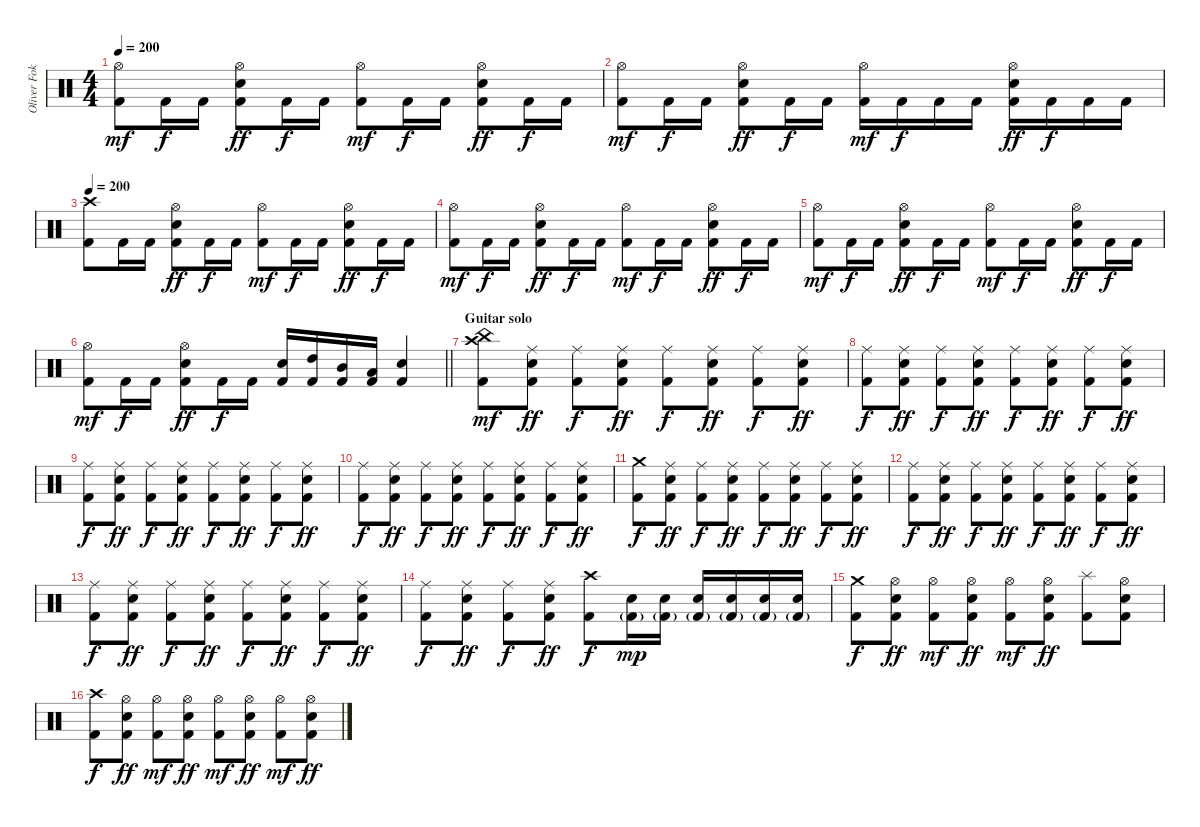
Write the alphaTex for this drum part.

\track ("Oliver Fokin" "Oliver Fok") {instrument percussion}
\staff {score}
\articulation defaults
\ts (4 4)
\tempo 200
\clef neutral
\ks c
("Hi-Hat (open)" "Kick (hit) 2").8{dy mf} "Kick (hit) 2".16{dy f} "Kick (hit) 2".16 ("Hi-Hat (open)" "Electric Snare (hit)" "Kick (hit) 2").8{dy ff} "Kick (hit) 2".16{dy f} "Kick (hit) 2".16 ("Hi-Hat (open)" "Kick (hit) 2").8{dy mf} "Kick (hit) 2".16{dy f} "Kick (hit) 2".16 ("Hi-Hat (open)" "Electric Snare (hit)" "Kick (hit) 2").8{dy ff} "Kick (hit) 2".16{dy f} "Kick (hit) 2".16 |
("Hi-Hat (open)" "Kick (hit) 2").8{dy mf} "Kick (hit) 2".16{dy f} "Kick (hit) 2".16 ("Hi-Hat (open)" "Electric Snare (hit)" "Kick (hit) 2").8{dy ff} "Kick (hit) 2".16{dy f} "Kick (hit) 2".16 ("Hi-Hat (open)" "Kick (hit) 2").16{dy mf} "Kick (hit) 2".16{dy f} "Kick (hit) 2".16 "Kick (hit) 2".16 ("Hi-Hat (open)" "Electric Snare (hit)" "Kick (hit) 2").16{dy ff} "Kick (hit) 2".16{dy f} "Kick (hit) 2".16 "Kick (hit) 2".16 |
\tempo 200
("Crash high (hit)" "Kick (hit) 2").8 "Kick (hit) 2".16 "Kick (hit) 2".16 ("Hi-Hat (open)" "Electric Snare (hit)" "Kick (hit) 2").8{dy ff} "Kick (hit) 2".16{dy f} "Kick (hit) 2".16 ("Hi-Hat (open)" "Kick (hit) 2").8{dy mf} "Kick (hit) 2".16{dy f} "Kick (hit) 2".16 ("Hi-Hat (open)" "Electric Snare (hit)" "Kick (hit) 2").8{dy ff} "Kick (hit) 2".16{dy f} "Kick (hit) 2".16 |
("Hi-Hat (open)" "Kick (hit) 2").8{dy mf} "Kick (hit) 2".16{dy f} "Kick (hit) 2".16 ("Hi-Hat (open)" "Electric Snare (hit)" "Kick (hit) 2").8{dy ff} "Kick (hit) 2".16{dy f} "Kick (hit) 2".16 ("Hi-Hat (open)" "Kick (hit) 2").8{dy mf} "Kick (hit) 2".16{dy f} "Kick (hit) 2".16 ("Hi-Hat (open)" "Electric Snare (hit)" "Kick (hit) 2").8{dy ff} "Kick (hit) 2".16{dy f} "Kick (hit) 2".16 |
("Hi-Hat (open)" "Kick (hit) 2").8{dy mf} "Kick (hit) 2".16{dy f} "Kick (hit) 2".16 ("Hi-Hat (open)" "Electric Snare (hit)" "Kick (hit) 2").8{dy ff} "Kick (hit) 2".16{dy f} "Kick (hit) 2".16 ("Hi-Hat (open)" "Kick (hit) 2").8{dy mf} "Kick (hit) 2".16{dy f} "Kick (hit) 2".16 ("Hi-Hat (open)" "Electric Snare (hit)" "Kick (hit) 2").8{dy ff} "Kick (hit) 2".16{dy f} "Kick (hit) 2".16 |
\barLineRight lightlight
("Hi-Hat (open)" "Kick (hit) 2").8{dy mf} "Kick (hit) 2".16{dy f} "Kick (hit) 2".16 ("Hi-Hat (open)" "Electric Snare (hit)" "Kick (hit) 2").8{dy ff} "Kick (hit) 2".16{dy f} "Kick (hit) 2".16 ("Electric Snare (hit)" "Kick (hit) 2").16 ("High Tom (hit)" "Kick (hit) 2").16 ("Mid Tom (hit)" "Kick (hit) 2").16 ("Low Tom (hit)" "Kick (hit) 2").16 ("Electric Snare (hit)" "Kick (hit) 2").4 |
\section ("" "Guitar solo")
("Crash high (hit)" "China (hit)" "Kick (hit) 2").8{dy mf} ("Ride (middle)" "Electric Snare (hit)" "Kick (hit) 2").8{dy ff} ("Ride (middle)" "Kick (hit) 2").8{dy f} ("Ride (middle)" "Electric Snare (hit)" "Kick (hit) 2").8{dy ff} ("Ride (middle)" "Kick (hit) 2").8{dy f} ("Ride (middle)" "Electric Snare (hit)" "Kick (hit) 2").8{dy ff} ("Ride (middle)" "Kick (hit) 2").8{dy f} ("Ride (middle)" "Electric Snare (hit)" "Kick (hit) 2").8{dy ff} |
("Ride (middle)" "Kick (hit) 2").8{dy f} ("Ride (middle)" "Electric Snare (hit)" "Kick (hit) 2").8{dy ff} ("Ride (middle)" "Kick (hit) 2").8{dy f} ("Ride (middle)" "Electric Snare (hit)" "Kick (hit) 2").8{dy ff} ("Ride (middle)" "Kick (hit) 2").8{dy f} ("Ride (middle)" "Electric Snare (hit)" "Kick (hit) 2").8{dy ff} ("Ride (middle)" "Kick (hit) 2").8{dy f} ("Ride (middle)" "Electric Snare (hit)" "Kick (hit) 2").8{dy ff} |
("Ride (middle)" "Kick (hit) 2").8{dy f} ("Ride (middle)" "Electric Snare (hit)" "Kick (hit) 2").8{dy ff} ("Ride (middle)" "Kick (hit) 2").8{dy f} ("Ride (middle)" "Electric Snare (hit)" "Kick (hit) 2").8{dy ff} ("Ride (middle)" "Kick (hit) 2").8{dy f} ("Ride (middle)" "Electric Snare (hit)" "Kick (hit) 2").8{dy ff} ("Ride (middle)" "Kick (hit) 2").8{dy f} ("Ride (middle)" "Electric Snare (hit)" "Kick (hit) 2").8{dy ff} |
("Ride (middle)" "Kick (hit) 2").8{dy f} ("Ride (middle)" "Electric Snare (hit)" "Kick (hit) 2").8{dy ff} ("Ride (middle)" "Kick (hit) 2").8{dy f} ("Ride (middle)" "Electric Snare (hit)" "Kick (hit) 2").8{dy ff} ("Ride (middle)" "Kick (hit) 2").8{dy f} ("Ride (middle)" "Electric Snare (hit)" "Kick (hit) 2").8{dy ff} ("Ride (middle)" "Kick (hit) 2").8{dy f} ("Ride (middle)" "Electric Snare (hit)" "Kick (hit) 2").8{dy ff} |
("Crash medium (hit)" "Kick (hit) 2").8{dy f} ("Ride (middle)" "Electric Snare (hit)" "Kick (hit) 2").8{dy ff} ("Ride (middle)" "Kick (hit) 2").8{dy f} ("Ride (middle)" "Electric Snare (hit)" "Kick (hit) 2").8{dy ff} ("Ride (middle)" "Kick (hit) 2").8{dy f} ("Ride (middle)" "Electric Snare (hit)" "Kick (hit) 2").8{dy ff} ("Ride (middle)" "Kick (hit) 2").8{dy f} ("Ride (middle)" "Electric Snare (hit)" "Kick (hit) 2").8{dy ff} |
("Ride (middle)" "Kick (hit) 2").8{dy f} ("Ride (middle)" "Electric Snare (hit)" "Kick (hit) 2").8{dy ff} ("Ride (middle)" "Kick (hit) 2").8{dy f} ("Ride (middle)" "Electric Snare (hit)" "Kick (hit) 2").8{dy ff} ("Ride (middle)" "Kick (hit) 2").8{dy f} ("Ride (middle)" "Electric Snare (hit)" "Kick (hit) 2").8{dy ff} ("Ride (middle)" "Kick (hit) 2").8{dy f} ("Ride (middle)" "Electric Snare (hit)" "Kick (hit) 2").8{dy ff} |
("Ride (middle)" "Kick (hit) 2").8{dy f} ("Ride (middle)" "Electric Snare (hit)" "Kick (hit) 2").8{dy ff} ("Ride (middle)" "Kick (hit) 2").8{dy f} ("Ride (middle)" "Electric Snare (hit)" "Kick (hit) 2").8{dy ff} ("Ride (middle)" "Kick (hit) 2").8{dy f} ("Ride (middle)" "Electric Snare (hit)" "Kick (hit) 2").8{dy ff} ("Ride (middle)" "Kick (hit) 2").8{dy f} ("Ride (middle)" "Electric Snare (hit)" "Kick (hit) 2").8{dy ff} |
("Ride (middle)" "Kick (hit) 2").8{dy f} ("Ride (middle)" "Electric Snare (hit)" "Kick (hit) 2").8{dy ff} ("Ride (middle)" "Kick (hit) 2").8{dy f} ("Ride (middle)" "Electric Snare (hit)" "Kick (hit) 2").8{dy ff} ("Crash high (hit)" "Kick (hit) 2").8{dy f} ("Electric Snare (hit)" "Kick (hit) 2"{g}).16{dy mp} ("Electric Snare (hit)" "Kick (hit) 2"{g}).16 ("Electric Snare (hit)" "Kick (hit) 2"{g}).16 ("Electric Snare (hit)" "Kick (hit) 2"{g}).16 ("Electric Snare (hit)" "Kick (hit) 2"{g}).16 ("Electric Snare (hit)" "Kick (hit) 2"{g}).16 |
("Crash medium (hit)" "Kick (hit) 2").8{dy f} ("Hi-Hat (open)" "Electric Snare (hit)" "Kick (hit) 2").8{dy ff} ("Hi-Hat (open)" "Kick (hit) 2").8{dy mf} ("Hi-Hat (open)" "Electric Snare (hit)" "Kick (hit) 2").8{dy ff} ("Hi-Hat (open)" "Kick (hit) 2").8{dy mf} ("Hi-Hat (open)" "Electric Snare (hit)" "Kick (hit) 2").8{dy ff} ("Splash (hit)" "Kick (hit) 2").8 ("Hi-Hat (open)" "Electric Snare (hit)" "Kick (hit) 2").8 |
("Crash high (hit)" "Kick (hit) 2").8{dy f} ("Hi-Hat (open)" "Electric Snare (hit)" "Kick (hit) 2").8{dy ff} ("Hi-Hat (open)" "Kick (hit) 2").8{dy mf} ("Hi-Hat (open)" "Electric Snare (hit)" "Kick (hit) 2").8{dy ff} ("Hi-Hat (open)" "Kick (hit) 2").8{dy mf} ("Hi-Hat (open)" "Electric Snare (hit)" "Kick (hit) 2").8{dy ff} ("Hi-Hat (open)" "Kick (hit) 2").8{dy mf} ("Hi-Hat (open)" "Electric Snare (hit)" "Kick (hit) 2").8{dy ff}
